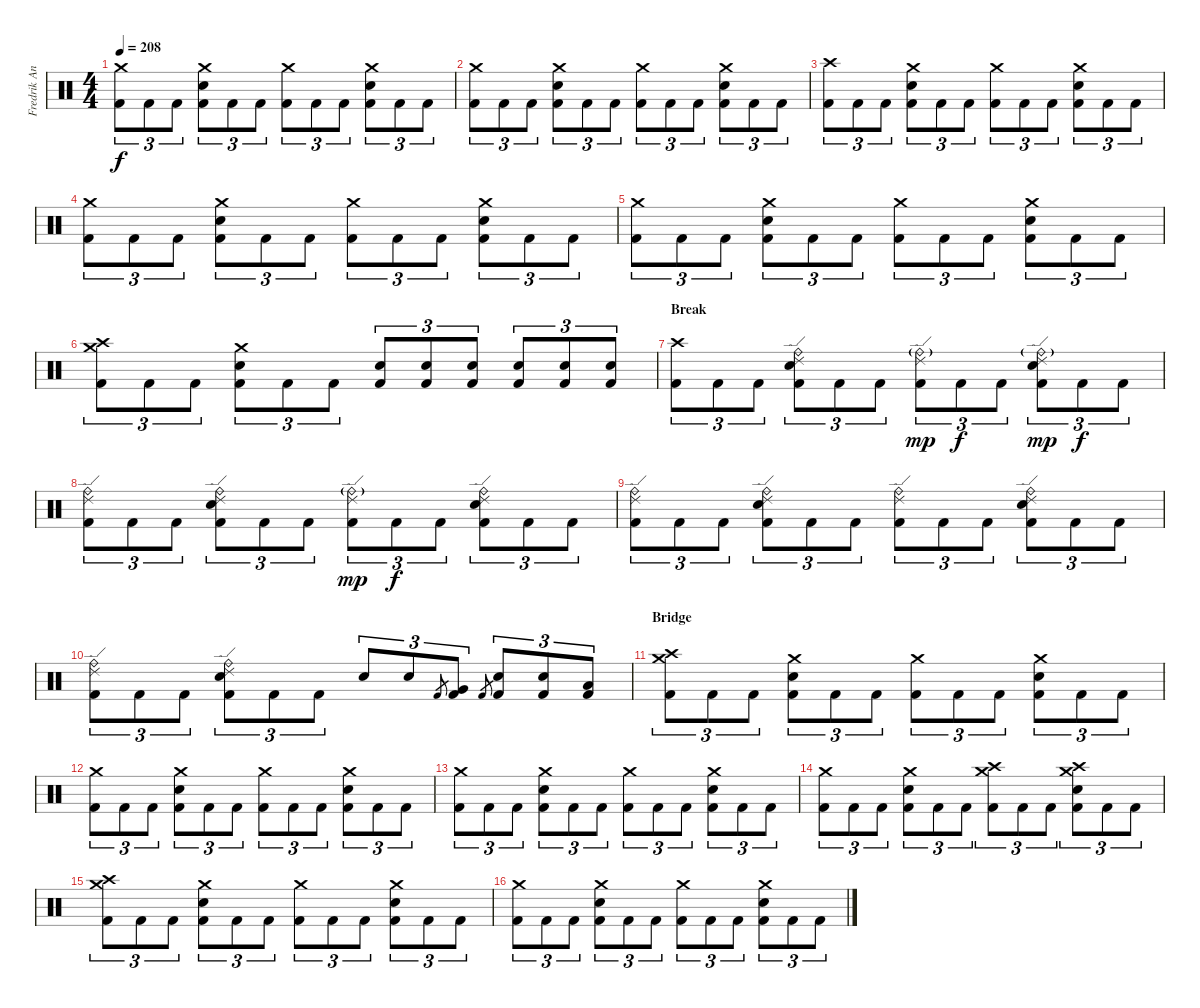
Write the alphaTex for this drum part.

\track ("Fredrik Andersson" "Fredrik An") {instrument percussion}
\staff {score}
\articulation defaults
\ts (4 4)
\tempo 208
\clef neutral
\ks c
("Crash medium (hit)" "Kick (hit) 2").8{tu (3 2) dy f} "Kick (hit) 2".8{tu (3 2)} "Kick (hit) 2".8{tu (3 2)} ("Crash medium (hit)" "Electric Snare (hit)" "Kick (hit) 2").8{tu (3 2)} "Kick (hit) 2".8{tu (3 2)} "Kick (hit) 2".8{tu (3 2)} ("Crash medium (hit)" "Kick (hit) 2").8{tu (3 2)} "Kick (hit) 2".8{tu (3 2)} "Kick (hit) 2".8{tu (3 2)} ("Crash medium (hit)" "Electric Snare (hit)" "Kick (hit) 2").8{tu (3 2)} "Kick (hit) 2".8{tu (3 2)} "Kick (hit) 2".8{tu (3 2)} |
("Crash medium (hit)" "Kick (hit) 2").8{tu (3 2)} "Kick (hit) 2".8{tu (3 2)} "Kick (hit) 2".8{tu (3 2)} ("Crash medium (hit)" "Electric Snare (hit)" "Kick (hit) 2").8{tu (3 2)} "Kick (hit) 2".8{tu (3 2)} "Kick (hit) 2".8{tu (3 2)} ("Crash medium (hit)" "Kick (hit) 2").8{tu (3 2)} "Kick (hit) 2".8{tu (3 2)} "Kick (hit) 2".8{tu (3 2)} ("Crash medium (hit)" "Electric Snare (hit)" "Kick (hit) 2").8{tu (3 2)} "Kick (hit) 2".8{tu (3 2)} "Kick (hit) 2".8{tu (3 2)} |
("Crash high (hit)" "Kick (hit) 2").8{tu (3 2)} "Kick (hit) 2".8{tu (3 2)} "Kick (hit) 2".8{tu (3 2)} ("Crash medium (hit)" "Electric Snare (hit)" "Kick (hit) 2").8{tu (3 2)} "Kick (hit) 2".8{tu (3 2)} "Kick (hit) 2".8{tu (3 2)} ("Crash medium (hit)" "Kick (hit) 2").8{tu (3 2)} "Kick (hit) 2".8{tu (3 2)} "Kick (hit) 2".8{tu (3 2)} ("Crash medium (hit)" "Electric Snare (hit)" "Kick (hit) 2").8{tu (3 2)} "Kick (hit) 2".8{tu (3 2)} "Kick (hit) 2".8{tu (3 2)} |
("Crash medium (hit)" "Kick (hit) 2").8{tu (3 2)} "Kick (hit) 2".8{tu (3 2)} "Kick (hit) 2".8{tu (3 2)} ("Crash medium (hit)" "Electric Snare (hit)" "Kick (hit) 2").8{tu (3 2)} "Kick (hit) 2".8{tu (3 2)} "Kick (hit) 2".8{tu (3 2)} ("Crash medium (hit)" "Kick (hit) 2").8{tu (3 2)} "Kick (hit) 2".8{tu (3 2)} "Kick (hit) 2".8{tu (3 2)} ("Crash medium (hit)" "Electric Snare (hit)" "Kick (hit) 2").8{tu (3 2)} "Kick (hit) 2".8{tu (3 2)} "Kick (hit) 2".8{tu (3 2)} |
("Crash medium (hit)" "Kick (hit) 2").8{tu (3 2)} "Kick (hit) 2".8{tu (3 2)} "Kick (hit) 2".8{tu (3 2)} ("Crash medium (hit)" "Electric Snare (hit)" "Kick (hit) 2").8{tu (3 2)} "Kick (hit) 2".8{tu (3 2)} "Kick (hit) 2".8{tu (3 2)} ("Crash medium (hit)" "Kick (hit) 2").8{tu (3 2)} "Kick (hit) 2".8{tu (3 2)} "Kick (hit) 2".8{tu (3 2)} ("Crash medium (hit)" "Electric Snare (hit)" "Kick (hit) 2").8{tu (3 2)} "Kick (hit) 2".8{tu (3 2)} "Kick (hit) 2".8{tu (3 2)} |
("Crash medium (hit)" "Crash high (hit)" "Kick (hit) 2").8{tu (3 2)} "Kick (hit) 2".8{tu (3 2)} "Kick (hit) 2".8{tu (3 2)} ("Crash medium (hit)" "Electric Snare (hit)" "Kick (hit) 2").8{tu (3 2)} "Kick (hit) 2".8{tu (3 2)} "Kick (hit) 2".8{tu (3 2)} ("Electric Snare (hit)" "Kick (hit) 2").8{tu (3 2)} ("Electric Snare (hit)" "Kick (hit) 2").8{tu (3 2)} ("Electric Snare (hit)" "Kick (hit) 2").8{tu (3 2)} ("Electric Snare (hit)" "Kick (hit) 2").8{tu (3 2)} ("Electric Snare (hit)" "Kick (hit) 2").8{tu (3 2)} ("Electric Snare (hit)" "Kick (hit) 2").8{tu (3 2)} |
\section ("" "Break")
("Crash high (hit)" "Kick (hit) 2").8{tu (3 2)} "Kick (hit) 2".8{tu (3 2)} "Kick (hit) 2".8{tu (3 2)} ("Ride (edge) 2" "Electric Snare (hit)" "Ride (bell)" "Kick (hit) 2").8{tu (3 2)} "Kick (hit) 2".8{tu (3 2)} "Kick (hit) 2".8{tu (3 2)} ("Ride (edge) 2" "Ride (bell)"{g} "Kick (hit) 2").8{tu (3 2) dy mp} "Kick (hit) 2".8{tu (3 2) dy f} "Kick (hit) 2".8{tu (3 2)} ("Ride (edge) 2" "Electric Snare (hit)" "Ride (bell)"{g} "Kick (hit) 2").8{tu (3 2) dy mp} "Kick (hit) 2".8{tu (3 2) dy f} "Kick (hit) 2".8{tu (3 2)} |
("Ride (edge) 2" "Ride (bell)" "Kick (hit) 2").8{tu (3 2)} "Kick (hit) 2".8{tu (3 2)} "Kick (hit) 2".8{tu (3 2)} ("Ride (edge) 2" "Electric Snare (hit)" "Ride (bell)" "Kick (hit) 2").8{tu (3 2)} "Kick (hit) 2".8{tu (3 2)} "Kick (hit) 2".8{tu (3 2)} ("Ride (edge) 2" "Ride (bell)"{g} "Kick (hit) 2").8{tu (3 2) dy mp} "Kick (hit) 2".8{tu (3 2) dy f} "Kick (hit) 2".8{tu (3 2)} ("Ride (edge) 2" "Electric Snare (hit)" "Ride (bell)" "Kick (hit) 2").8{tu (3 2)} "Kick (hit) 2".8{tu (3 2)} "Kick (hit) 2".8{tu (3 2)} |
("Ride (edge) 2" "Ride (bell)" "Kick (hit) 2").8{tu (3 2)} "Kick (hit) 2".8{tu (3 2)} "Kick (hit) 2".8{tu (3 2)} ("Ride (edge) 2" "Electric Snare (hit)" "Ride (bell)" "Kick (hit) 2").8{tu (3 2)} "Kick (hit) 2".8{tu (3 2)} "Kick (hit) 2".8{tu (3 2)} ("Ride (edge) 2" "Ride (bell)" "Kick (hit) 2").8{tu (3 2)} "Kick (hit) 2".8{tu (3 2)} "Kick (hit) 2".8{tu (3 2)} ("Ride (edge) 2" "Electric Snare (hit)" "Ride (bell)" "Kick (hit) 2").8{tu (3 2)} "Kick (hit) 2".8{tu (3 2)} "Kick (hit) 2".8{tu (3 2)} |
("Ride (edge) 2" "Ride (bell)" "Kick (hit) 2").8{tu (3 2)} "Kick (hit) 2".8{tu (3 2)} "Kick (hit) 2".8{tu (3 2)} ("Ride (edge) 2" "Electric Snare (hit)" "Ride (bell)" "Kick (hit) 2").8{tu (3 2)} "Kick (hit) 2".8{tu (3 2)} "Kick (hit) 2".8{tu (3 2)} "Electric Snare (hit)".8{tu (3 2)} "Electric Snare (hit)".8{tu (3 2)} "Kick (hit) 2".8{gr} ("Very Low Tom (hit)" "Kick (hit) 2").8{tu (3 2)} "Kick (hit) 2".8{gr} ("Electric Snare (hit)" "Kick (hit) 2").8{tu (3 2)} ("Electric Snare (hit)" "Kick (hit) 2").8{tu (3 2)} ("Low Tom (hit)" "Kick (hit) 2").8{tu (3 2)} |
\section ("" "Bridge")
("Crash high (hit)" "Crash medium (hit)" "Kick (hit) 2").8{tu (3 2)} "Kick (hit) 2".8{tu (3 2)} "Kick (hit) 2".8{tu (3 2)} ("Crash medium (hit)" "Electric Snare (hit)" "Kick (hit) 2").8{tu (3 2)} "Kick (hit) 2".8{tu (3 2)} "Kick (hit) 2".8{tu (3 2)} ("Crash medium (hit)" "Kick (hit) 2").8{tu (3 2)} "Kick (hit) 2".8{tu (3 2)} "Kick (hit) 2".8{tu (3 2)} ("Crash medium (hit)" "Electric Snare (hit)" "Kick (hit) 2").8{tu (3 2)} "Kick (hit) 2".8{tu (3 2)} "Kick (hit) 2".8{tu (3 2)} |
("Crash medium (hit)" "Kick (hit) 2").8{tu (3 2)} "Kick (hit) 2".8{tu (3 2)} "Kick (hit) 2".8{tu (3 2)} ("Crash medium (hit)" "Electric Snare (hit)" "Kick (hit) 2").8{tu (3 2)} "Kick (hit) 2".8{tu (3 2)} "Kick (hit) 2".8{tu (3 2)} ("Crash medium (hit)" "Kick (hit) 2").8{tu (3 2)} "Kick (hit) 2".8{tu (3 2)} "Kick (hit) 2".8{tu (3 2)} ("Crash medium (hit)" "Electric Snare (hit)" "Kick (hit) 2").8{tu (3 2)} "Kick (hit) 2".8{tu (3 2)} "Kick (hit) 2".8{tu (3 2)} |
("Crash medium (hit)" "Kick (hit) 2").8{tu (3 2)} "Kick (hit) 2".8{tu (3 2)} "Kick (hit) 2".8{tu (3 2)} ("Crash medium (hit)" "Electric Snare (hit)" "Kick (hit) 2").8{tu (3 2)} "Kick (hit) 2".8{tu (3 2)} "Kick (hit) 2".8{tu (3 2)} ("Crash medium (hit)" "Kick (hit) 2").8{tu (3 2)} "Kick (hit) 2".8{tu (3 2)} "Kick (hit) 2".8{tu (3 2)} ("Crash medium (hit)" "Electric Snare (hit)" "Kick (hit) 2").8{tu (3 2)} "Kick (hit) 2".8{tu (3 2)} "Kick (hit) 2".8{tu (3 2)} |
("Crash medium (hit)" "Kick (hit) 2").8{tu (3 2)} "Kick (hit) 2".8{tu (3 2)} "Kick (hit) 2".8{tu (3 2)} ("Crash medium (hit)" "Electric Snare (hit)" "Kick (hit) 2").8{tu (3 2)} "Kick (hit) 2".8{tu (3 2)} "Kick (hit) 2".8{tu (3 2)} ("Crash medium (hit)" "Crash high (hit)" "Kick (hit) 2").8{tu (3 2)} "Kick (hit) 2".8{tu (3 2)} "Kick (hit) 2".8{tu (3 2)} ("Crash medium (hit)" "Electric Snare (hit)" "Crash high (hit)" "Kick (hit) 2").8{tu (3 2)} "Kick (hit) 2".8{tu (3 2)} "Kick (hit) 2".8{tu (3 2)} |
("Crash high (hit)" "Crash medium (hit)" "Kick (hit) 2").8{tu (3 2)} "Kick (hit) 2".8{tu (3 2)} "Kick (hit) 2".8{tu (3 2)} ("Crash medium (hit)" "Electric Snare (hit)" "Kick (hit) 2").8{tu (3 2)} "Kick (hit) 2".8{tu (3 2)} "Kick (hit) 2".8{tu (3 2)} ("Crash medium (hit)" "Kick (hit) 2").8{tu (3 2)} "Kick (hit) 2".8{tu (3 2)} "Kick (hit) 2".8{tu (3 2)} ("Crash medium (hit)" "Electric Snare (hit)" "Kick (hit) 2").8{tu (3 2)} "Kick (hit) 2".8{tu (3 2)} "Kick (hit) 2".8{tu (3 2)} |
("Crash medium (hit)" "Kick (hit) 2").8{tu (3 2)} "Kick (hit) 2".8{tu (3 2)} "Kick (hit) 2".8{tu (3 2)} ("Crash medium (hit)" "Electric Snare (hit)" "Kick (hit) 2").8{tu (3 2)} "Kick (hit) 2".8{tu (3 2)} "Kick (hit) 2".8{tu (3 2)} ("Crash medium (hit)" "Kick (hit) 2").8{tu (3 2)} "Kick (hit) 2".8{tu (3 2)} "Kick (hit) 2".8{tu (3 2)} ("Crash medium (hit)" "Electric Snare (hit)" "Kick (hit) 2").8{tu (3 2)} "Kick (hit) 2".8{tu (3 2)} "Kick (hit) 2".8{tu (3 2)}
